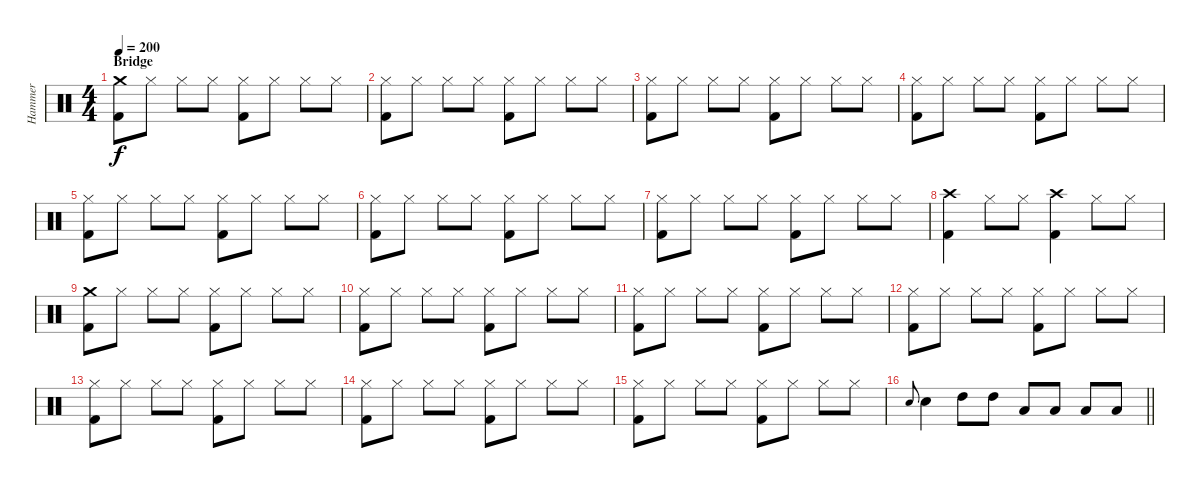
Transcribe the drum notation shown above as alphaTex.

\track ("Hammer" "Hammer") {instrument percussion}
\staff {score}
\articulation defaults
\ts (4 4)
\section ("" "Bridge")
\tempo 200
\clef neutral
\ks c
("Kick (hit) 2" "Crash medium (hit)").8{dy f} "Hi-Hat (closed)".8 "Hi-Hat (closed)".8 "Hi-Hat (closed)".8 ("Kick (hit) 2" "Hi-Hat (closed)").8 "Hi-Hat (closed)".8 "Hi-Hat (closed)".8 "Hi-Hat (closed)".8 |
("Kick (hit) 2" "Hi-Hat (closed)").8 "Hi-Hat (closed)".8 "Hi-Hat (closed)".8 "Hi-Hat (closed)".8 ("Kick (hit) 2" "Hi-Hat (closed)").8 "Hi-Hat (closed)".8 "Hi-Hat (closed)".8 "Hi-Hat (closed)".8 |
("Kick (hit) 2" "Hi-Hat (closed)").8 "Hi-Hat (closed)".8 "Hi-Hat (closed)".8 "Hi-Hat (closed)".8 ("Kick (hit) 2" "Hi-Hat (closed)").8 "Hi-Hat (closed)".8 "Hi-Hat (closed)".8 "Hi-Hat (closed)".8 |
("Kick (hit) 2" "Hi-Hat (closed)").8 "Hi-Hat (closed)".8 "Hi-Hat (closed)".8 "Hi-Hat (closed)".8 ("Kick (hit) 2" "Hi-Hat (closed)").8 "Hi-Hat (closed)".8 "Hi-Hat (closed)".8 "Hi-Hat (closed)".8 |
("Kick (hit) 2" "Hi-Hat (closed)").8 "Hi-Hat (closed)".8 "Hi-Hat (closed)".8 "Hi-Hat (closed)".8 ("Kick (hit) 2" "Hi-Hat (closed)").8 "Hi-Hat (closed)".8 "Hi-Hat (closed)".8 "Hi-Hat (closed)".8 |
("Kick (hit) 2" "Hi-Hat (closed)").8 "Hi-Hat (closed)".8 "Hi-Hat (closed)".8 "Hi-Hat (closed)".8 ("Kick (hit) 2" "Hi-Hat (closed)").8 "Hi-Hat (closed)".8 "Hi-Hat (closed)".8 "Hi-Hat (closed)".8 |
("Kick (hit) 2" "Hi-Hat (closed)").8 "Hi-Hat (closed)".8 "Hi-Hat (closed)".8 "Hi-Hat (closed)".8 ("Kick (hit) 2" "Hi-Hat (closed)").8 "Hi-Hat (closed)".8 "Hi-Hat (closed)".8 "Hi-Hat (closed)".8 |
("Kick (hit) 2" "Crash high (hit)").4 "Hi-Hat (closed)".8 "Hi-Hat (closed)".8 ("Kick (hit) 2" "Crash high (hit)").4 "Hi-Hat (closed)".8 "Hi-Hat (closed)".8 |
("Kick (hit) 2" "Crash medium (hit)").8 "Hi-Hat (closed)".8 "Hi-Hat (closed)".8 "Hi-Hat (closed)".8 ("Kick (hit) 2" "Hi-Hat (closed)").8 "Hi-Hat (closed)".8 "Hi-Hat (closed)".8 "Hi-Hat (closed)".8 |
("Kick (hit) 2" "Hi-Hat (closed)").8 "Hi-Hat (closed)".8 "Hi-Hat (closed)".8 "Hi-Hat (closed)".8 ("Kick (hit) 2" "Hi-Hat (closed)").8 "Hi-Hat (closed)".8 "Hi-Hat (closed)".8 "Hi-Hat (closed)".8 |
("Kick (hit) 2" "Hi-Hat (closed)").8 "Hi-Hat (closed)".8 "Hi-Hat (closed)".8 "Hi-Hat (closed)".8 ("Kick (hit) 2" "Hi-Hat (closed)").8 "Hi-Hat (closed)".8 "Hi-Hat (closed)".8 "Hi-Hat (closed)".8 |
("Kick (hit) 2" "Hi-Hat (closed)").8 "Hi-Hat (closed)".8 "Hi-Hat (closed)".8 "Hi-Hat (closed)".8 ("Kick (hit) 2" "Hi-Hat (closed)").8 "Hi-Hat (closed)".8 "Hi-Hat (closed)".8 "Hi-Hat (closed)".8 |
("Kick (hit) 2" "Hi-Hat (closed)").8 "Hi-Hat (closed)".8 "Hi-Hat (closed)".8 "Hi-Hat (closed)".8 ("Kick (hit) 2" "Hi-Hat (closed)").8 "Hi-Hat (closed)".8 "Hi-Hat (closed)".8 "Hi-Hat (closed)".8 |
("Kick (hit) 2" "Hi-Hat (closed)").8 "Hi-Hat (closed)".8 "Hi-Hat (closed)".8 "Hi-Hat (closed)".8 ("Kick (hit) 2" "Hi-Hat (closed)").8 "Hi-Hat (closed)".8 "Hi-Hat (closed)".8 "Hi-Hat (closed)".8 |
("Kick (hit) 2" "Hi-Hat (closed)").8 "Hi-Hat (closed)".8 "Hi-Hat (closed)".8 "Hi-Hat (closed)".8 ("Kick (hit) 2" "Hi-Hat (closed)").8 "Hi-Hat (closed)".8 "Hi-Hat (closed)".8 "Hi-Hat (closed)".8 |
\barLineRight lightlight "Snare (hit) 2".8{gr onbeat} "Snare (hit) 2".4 "High Tom (hit)".8 "High Tom (hit)".8 "Low Tom (hit)".8 "Low Tom (hit)".8 "Low Floor Tom (hit)".8 "Low Floor Tom (hit)".8
